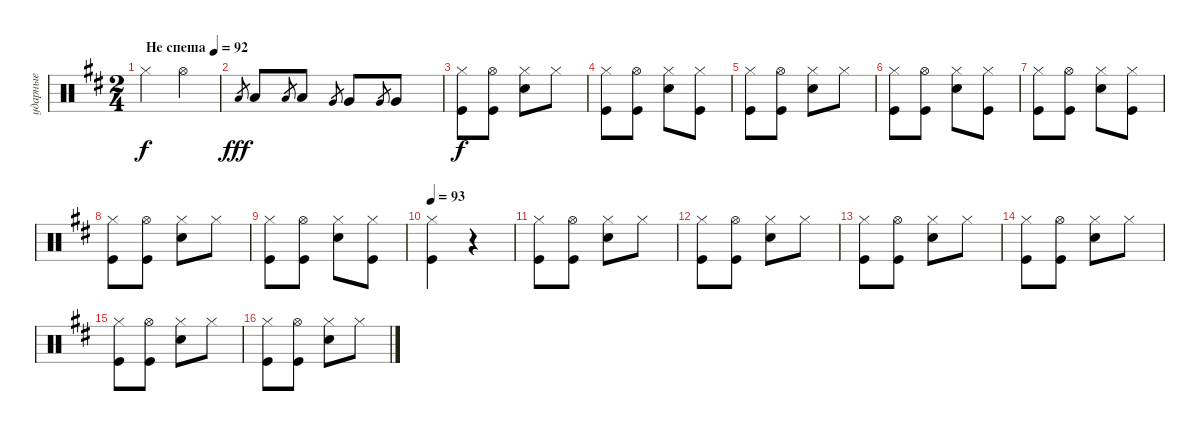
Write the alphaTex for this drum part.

\track ("ударные" "ударные") {instrument percussion}
\staff {score}
\articulation defaults
\ts (2 4)
\tempo (92 "Не спеша")
\clef neutral
\ks bminor "Hi-Hat (closed)".4{dy f} "Hi-Hat (open)".4
|
"Low Tom (hit)".8{gr dy fff} "Low Tom (hit)".8 "Low Tom (hit)".8{gr} "Low Tom (hit)".8 "Very Low Tom (hit)".8{gr} "Very Low Tom (hit)".8 "Very Low Tom (hit)".8{gr} "Very Low Tom (hit)".8 |
("Kick (hit)" "Hi-Hat (closed)").8{dy f} ("Kick (hit)" "Hi-Hat (open)").8 ("Snare (hit) 2" "Hi-Hat (closed)").8 "Hi-Hat (closed)".8 |
("Kick (hit)" "Hi-Hat (closed)").8 ("Kick (hit)" "Hi-Hat (open)").8 ("Snare (hit) 2" "Hi-Hat (closed)").8 ("Hi-Hat (closed)" "Kick (hit)").8 |
("Kick (hit)" "Hi-Hat (closed)").8 ("Kick (hit)" "Hi-Hat (open)").8 ("Snare (hit) 2" "Hi-Hat (closed)").8 "Hi-Hat (closed)".8 |
("Kick (hit)" "Hi-Hat (closed)").8 ("Kick (hit)" "Hi-Hat (open)").8 ("Snare (hit) 2" "Hi-Hat (closed)").8 ("Hi-Hat (closed)" "Kick (hit)").8 |
("Kick (hit)" "Hi-Hat (closed)").8 ("Kick (hit)" "Hi-Hat (open)").8 ("Snare (hit) 2" "Hi-Hat (closed)").8 ("Hi-Hat (closed)" "Kick (hit)").8 |
("Kick (hit)" "Hi-Hat (closed)").8 ("Kick (hit)" "Hi-Hat (open)").8 ("Snare (hit) 2" "Hi-Hat (closed)").8 "Hi-Hat (closed)".8 |
("Kick (hit)" "Hi-Hat (closed)").8 ("Kick (hit)" "Hi-Hat (open)").8 ("Snare (hit) 2" "Hi-Hat (closed)").8 ("Hi-Hat (closed)" "Kick (hit)").8 |
\tempo 93
("Hi-Hat (closed)" "Kick (hit)").4 r.4 |
("Kick (hit)" "Hi-Hat (closed)").8 ("Kick (hit)" "Hi-Hat (open)").8 ("Snare (hit) 2" "Hi-Hat (closed)").8 "Hi-Hat (closed)".8 |
("Kick (hit)" "Hi-Hat (closed)").8 ("Kick (hit)" "Hi-Hat (open)").8 ("Snare (hit) 2" "Hi-Hat (closed)").8 "Hi-Hat (closed)".8 |
("Kick (hit)" "Hi-Hat (closed)").8 ("Kick (hit)" "Hi-Hat (open)").8 ("Snare (hit) 2" "Hi-Hat (closed)").8 "Hi-Hat (closed)".8 |
("Kick (hit)" "Hi-Hat (closed)").8 ("Kick (hit)" "Hi-Hat (open)").8 ("Snare (hit) 2" "Hi-Hat (closed)").8 "Hi-Hat (closed)".8 |
("Kick (hit)" "Hi-Hat (closed)").8 ("Kick (hit)" "Hi-Hat (open)").8 ("Snare (hit) 2" "Hi-Hat (closed)").8 "Hi-Hat (closed)".8 |
("Kick (hit)" "Hi-Hat (closed)").8 ("Kick (hit)" "Hi-Hat (open)").8 ("Snare (hit) 2" "Hi-Hat (closed)").8 "Hi-Hat (closed)".8
